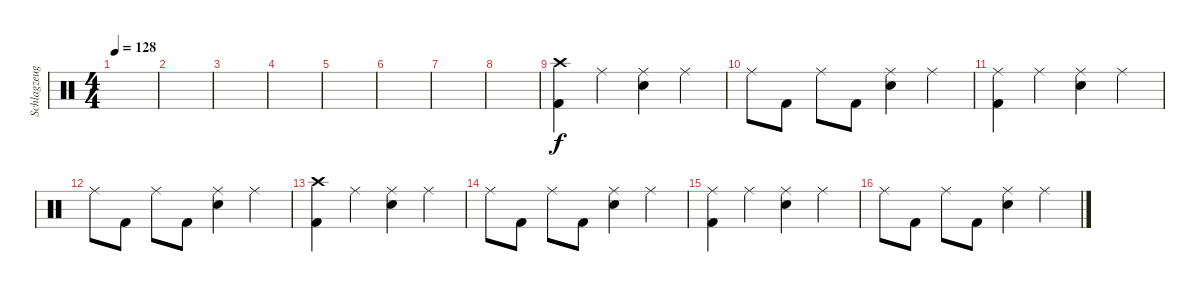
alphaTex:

\track ("Schlagzeug" "Schlagzeug") {instrument percussion}
\staff {score}
\articulation defaults
\ts (4 4)
\tempo 128
\clef neutral
\ks c
|
|
|
|
|
|
|
|
("Crash high (hit)" "Kick (hit) 2").4 "Ride (middle)".4 ("Ride (middle)" "Snare (hit) 2").4 "Ride (middle)".4 |
"Ride (middle)".8 "Kick (hit) 2".8 "Ride (middle)".8 "Kick (hit) 2".8 ("Ride (middle)" "Snare (hit) 2").4 "Ride (middle)".4 |
("Ride (middle)" "Kick (hit) 2").4 "Ride (middle)".4 ("Ride (middle)" "Snare (hit) 2").4 "Ride (middle)".4 |
"Ride (middle)".8 "Kick (hit) 2".8 "Ride (middle)".8 "Kick (hit) 2".8 ("Ride (middle)" "Snare (hit) 2").4 "Ride (middle)".4 |
("Crash high (hit)" "Kick (hit) 2").4 "Ride (middle)".4 ("Ride (middle)" "Snare (hit) 2").4 "Ride (middle)".4 |
"Ride (middle)".8 "Kick (hit) 2".8 "Ride (middle)".8 "Kick (hit) 2".8 ("Ride (middle)" "Snare (hit) 2").4 "Ride (middle)".4 |
("Ride (middle)" "Kick (hit) 2").4 "Ride (middle)".4 ("Ride (middle)" "Snare (hit) 2").4 "Ride (middle)".4 |
"Ride (middle)".8 "Kick (hit) 2".8 "Ride (middle)".8 "Kick (hit) 2".8 ("Ride (middle)" "Snare (hit) 2").4 "Ride (middle)".4
